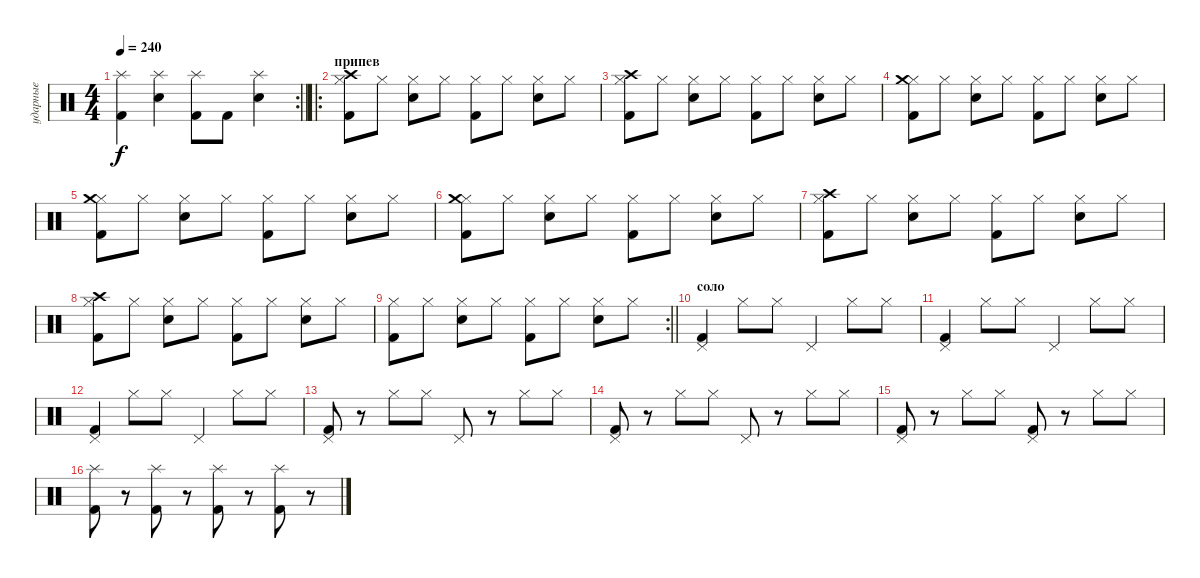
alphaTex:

\track ("ударные" "ударные") {instrument percussion}
\staff {score}
\articulation defaults
\rc 2
\ts (4 4)
\tempo 240
\clef neutral
\barLineRight lightlight
\ks c
("Splash (hit)" "Kick (hit) 2").4{dy f} ("Splash (hit)" "Electric Snare (hit)").4 ("Splash (hit)" "Kick (hit) 2").8 "Kick (hit) 2".8 ("Splash (hit)" "Electric Snare (hit)").4 |
\ro
\section ("" "припев")
("Hi-Hat (closed)" "Crash high (hit)" "Kick (hit) 2").8 "Hi-Hat (closed)".8 ("Hi-Hat (closed)" "Electric Snare (hit)").8 "Hi-Hat (closed)".8 ("Hi-Hat (closed)" "Kick (hit) 2").8 "Hi-Hat (closed)".8 ("Hi-Hat (closed)" "Electric Snare (hit)").8 "Hi-Hat (closed)".8 |
("Hi-Hat (closed)" "Crash high (hit)" "Kick (hit) 2").8 "Hi-Hat (closed)".8 ("Hi-Hat (closed)" "Electric Snare (hit)").8 "Hi-Hat (closed)".8 ("Hi-Hat (closed)" "Kick (hit) 2").8 "Hi-Hat (closed)".8 ("Hi-Hat (closed)" "Electric Snare (hit)").8 "Hi-Hat (closed)".8 |
("Hi-Hat (closed)" "Crash medium (hit)" "Kick (hit) 2").8 "Hi-Hat (closed)".8 ("Hi-Hat (closed)" "Electric Snare (hit)").8 "Hi-Hat (closed)".8 ("Hi-Hat (closed)" "Kick (hit) 2").8 "Hi-Hat (closed)".8 ("Hi-Hat (closed)" "Electric Snare (hit)").8 "Hi-Hat (closed)".8 |
("Hi-Hat (closed)" "Crash medium (hit)" "Kick (hit) 2").8 "Hi-Hat (closed)".8 ("Hi-Hat (closed)" "Electric Snare (hit)").8 "Hi-Hat (closed)".8 ("Hi-Hat (closed)" "Kick (hit) 2").8 "Hi-Hat (closed)".8 ("Hi-Hat (closed)" "Electric Snare (hit)").8 "Hi-Hat (closed)".8 |
("Hi-Hat (closed)" "Kick (hit) 2" "Crash medium (hit)").8 "Hi-Hat (closed)".8 ("Hi-Hat (closed)" "Electric Snare (hit)").8 "Hi-Hat (closed)".8 ("Hi-Hat (closed)" "Kick (hit) 2").8 "Hi-Hat (closed)".8 ("Hi-Hat (closed)" "Electric Snare (hit)").8 "Hi-Hat (closed)".8 |
("Hi-Hat (closed)" "Kick (hit) 2" "Crash high (hit)").8 "Hi-Hat (closed)".8 ("Hi-Hat (closed)" "Electric Snare (hit)").8 "Hi-Hat (closed)".8 ("Hi-Hat (closed)" "Kick (hit) 2").8 "Hi-Hat (closed)".8 ("Hi-Hat (closed)" "Electric Snare (hit)").8 "Hi-Hat (closed)".8 |
("Hi-Hat (closed)" "Kick (hit) 2" "Crash high (hit)").8 "Hi-Hat (closed)".8 ("Hi-Hat (closed)" "Electric Snare (hit)").8 "Hi-Hat (closed)".8 ("Hi-Hat (closed)" "Kick (hit) 2").8 "Hi-Hat (closed)".8 ("Hi-Hat (closed)" "Electric Snare (hit)").8 "Hi-Hat (closed)".8 |
\rc 2
\barLineRight lightlight
("Hi-Hat (closed)" "Kick (hit) 2").8 "Hi-Hat (closed)".8 ("Hi-Hat (closed)" "Electric Snare (hit)").8 "Hi-Hat (closed)".8 ("Hi-Hat (closed)" "Kick (hit) 2").8 "Hi-Hat (closed)".8 ("Hi-Hat (closed)" "Electric Snare (hit)").8 "Hi-Hat (closed)".8 |
\section ("" "соло")
("Pedal Hi-Hat (hit)" "Kick (hit) 2").4 "Hi-Hat (closed)".8 "Hi-Hat (closed)".8 "Pedal Hi-Hat (hit)".4 "Hi-Hat (closed)".8 "Hi-Hat (closed)".8 |
("Pedal Hi-Hat (hit)" "Kick (hit) 2").4 "Hi-Hat (closed)".8 "Hi-Hat (closed)".8 "Pedal Hi-Hat (hit)".4 "Hi-Hat (closed)".8 "Hi-Hat (closed)".8 |
("Pedal Hi-Hat (hit)" "Kick (hit) 2").4 "Hi-Hat (closed)".8 "Hi-Hat (closed)".8 "Pedal Hi-Hat (hit)".4 "Hi-Hat (closed)".8 "Hi-Hat (closed)".8 |
("Pedal Hi-Hat (hit)" "Kick (hit) 2").8 r.8 "Hi-Hat (closed)".8 "Hi-Hat (closed)".8 "Pedal Hi-Hat (hit)".8 r.8 "Hi-Hat (closed)".8 "Hi-Hat (closed)".8 |
("Pedal Hi-Hat (hit)" "Kick (hit) 2").8 r.8 "Hi-Hat (closed)".8 "Hi-Hat (closed)".8 "Pedal Hi-Hat (hit)".8 r.8 "Hi-Hat (closed)".8 "Hi-Hat (closed)".8 |
("Pedal Hi-Hat (hit)" "Kick (hit) 2").8 r.8 "Hi-Hat (closed)".8 "Hi-Hat (closed)".8 ("Kick (hit) 2" "Pedal Hi-Hat (hit)").8 r.8 "Hi-Hat (closed)".8 "Hi-Hat (closed)".8 |
("Splash (hit)" "Kick (hit) 2").8 r.8 ("Splash (hit)" "Kick (hit) 2").8 r.8 ("Splash (hit)" "Kick (hit) 2").8 r.8 ("Splash (hit)" "Kick (hit) 2").8 r.8
